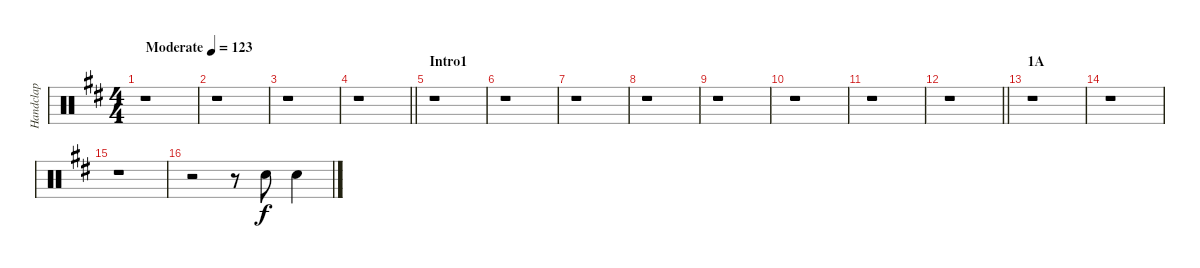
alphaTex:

\track ("Handclap" "Handclap") {instrument percussion}
\staff {score}
\articulation defaults
\ts (4 4)
\tempo (123 "Moderate")
\clef neutral
\ks d
r.1{dy f} |
r.1 |
r.1 |
\barLineRight lightlight
r.1 |
\section ("" "Intro1")
r.1 |
r.1 |
r.1 |
r.1 |
r.1 |
r.1 |
r.1 |
\barLineRight lightlight
r.1 |
\section ("" "1A")
r.1 |
r.1 |
r.1 |
r.2 r.8 "Hand Clap (hit)".8 "Hand Clap (hit)".4
